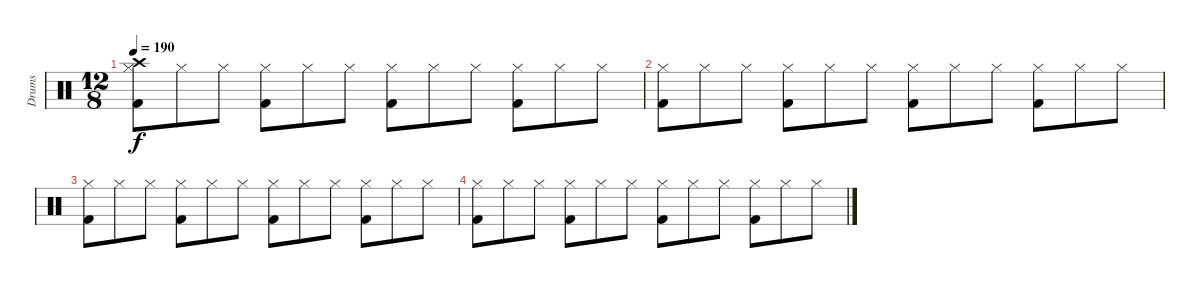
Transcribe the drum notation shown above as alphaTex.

\track ("Drums" "Drums") {instrument percussion}
\staff {score}
\articulation defaults
\ts (12 8)
\tempo 190
\clef neutral
\ks c
("Kick (hit) 2" "Crash high (hit)" "Hi-Hat (closed)").8{dy f} "Hi-Hat (closed)".8 "Hi-Hat (closed)".8 ("Kick (hit) 2" "Hi-Hat (closed)").8 "Hi-Hat (closed)".8 "Hi-Hat (closed)".8 ("Kick (hit) 2" "Hi-Hat (closed)").8 "Hi-Hat (closed)".8 "Hi-Hat (closed)".8 ("Kick (hit) 2" "Hi-Hat (closed)").8 "Hi-Hat (closed)".8 "Hi-Hat (closed)".8 |
("Kick (hit) 2" "Hi-Hat (closed)").8 "Hi-Hat (closed)".8 "Hi-Hat (closed)".8 ("Kick (hit) 2" "Hi-Hat (closed)").8 "Hi-Hat (closed)".8 "Hi-Hat (closed)".8 ("Kick (hit) 2" "Hi-Hat (closed)").8 "Hi-Hat (closed)".8 "Hi-Hat (closed)".8 ("Kick (hit) 2" "Hi-Hat (closed)").8 "Hi-Hat (closed)".8 "Hi-Hat (closed)".8 |
("Kick (hit) 2" "Hi-Hat (closed)").8 "Hi-Hat (closed)".8 "Hi-Hat (closed)".8 ("Kick (hit) 2" "Hi-Hat (closed)").8 "Hi-Hat (closed)".8 "Hi-Hat (closed)".8 ("Kick (hit) 2" "Hi-Hat (closed)").8 "Hi-Hat (closed)".8 "Hi-Hat (closed)".8 ("Kick (hit) 2" "Hi-Hat (closed)").8 "Hi-Hat (closed)".8 "Hi-Hat (closed)".8 |
("Kick (hit) 2" "Hi-Hat (closed)").8 "Hi-Hat (closed)".8 "Hi-Hat (closed)".8 ("Kick (hit) 2" "Hi-Hat (closed)").8 "Hi-Hat (closed)".8 "Hi-Hat (closed)".8 ("Kick (hit) 2" "Hi-Hat (closed)").8 "Hi-Hat (closed)".8 "Hi-Hat (closed)".8 ("Kick (hit) 2" "Hi-Hat (closed)").8 "Hi-Hat (closed)".8 "Hi-Hat (closed)".8
